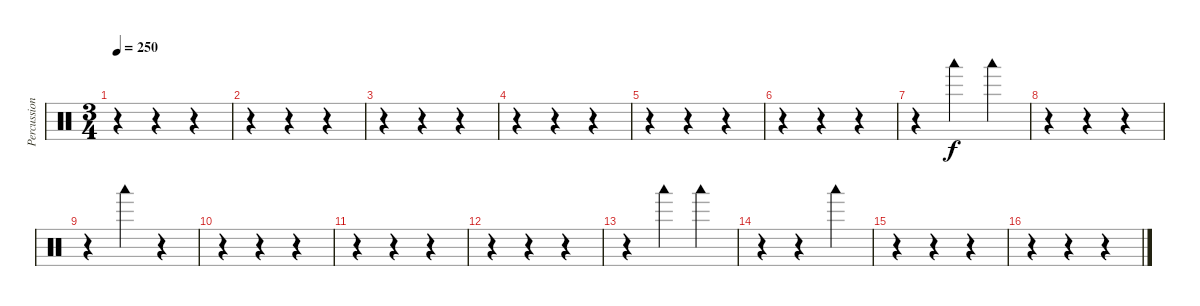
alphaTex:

\track ("Percussions" "Percussion") {instrument percussion}
\staff {score}
\articulation defaults
\ts (3 4)
\tempo 250
\clef neutral
\ks c
r.4{dy f} r.4 r.4 |
r.4 r.4 r.4 |
r.4 r.4 r.4 |
r.4 r.4 r.4 |
r.4 r.4 r.4 |
r.4 r.4 r.4 |
r.4 "Woodblock low (hit)".4 "Woodblock low (hit)".4 |
r.4 r.4 r.4 |
r.4 "Woodblock low (hit)".4 r.4 |
r.4 r.4 r.4 |
r.4 r.4 r.4 |
r.4 r.4 r.4 |
r.4 "Woodblock low (hit)".4 "Woodblock low (hit)".4 |
r.4 r.4 "Woodblock low (hit)".4 |
r.4 r.4 r.4 |
r.4 r.4 r.4
